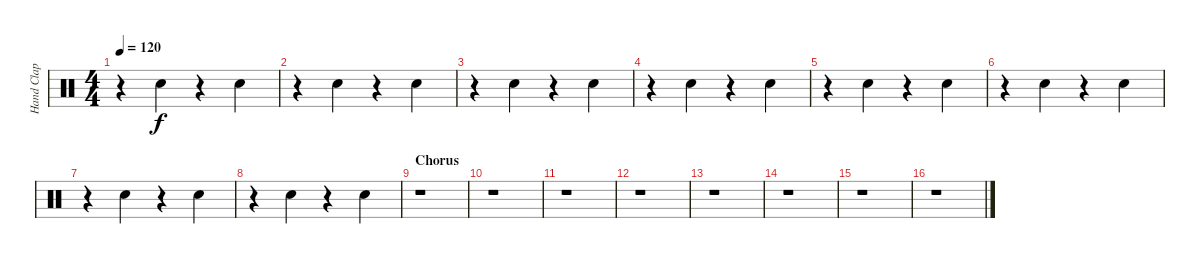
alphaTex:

\track ("Hand Clap" "Hand Clap") {instrument percussion}
\staff {score}
\articulation defaults
\ts (4 4)
\tempo 120
\clef neutral
\ks c
r.4{dy f} "Hand Clap (hit)".4 r.4 "Hand Clap (hit)".4 |
r.4 "Hand Clap (hit)".4 r.4 "Hand Clap (hit)".4 |
r.4 "Hand Clap (hit)".4 r.4 "Hand Clap (hit)".4 |
r.4 "Hand Clap (hit)".4 r.4 "Hand Clap (hit)".4 |
r.4 "Hand Clap (hit)".4 r.4 "Hand Clap (hit)".4 |
r.4 "Hand Clap (hit)".4 r.4 "Hand Clap (hit)".4 |
r.4 "Hand Clap (hit)".4 r.4 "Hand Clap (hit)".4 |
r.4 "Hand Clap (hit)".4 r.4 "Hand Clap (hit)".4 |
\section ("" "Chorus")
r.1 |
r.1 |
r.1 |
r.1 |
r.1 |
r.1 |
r.1 |
r.1
